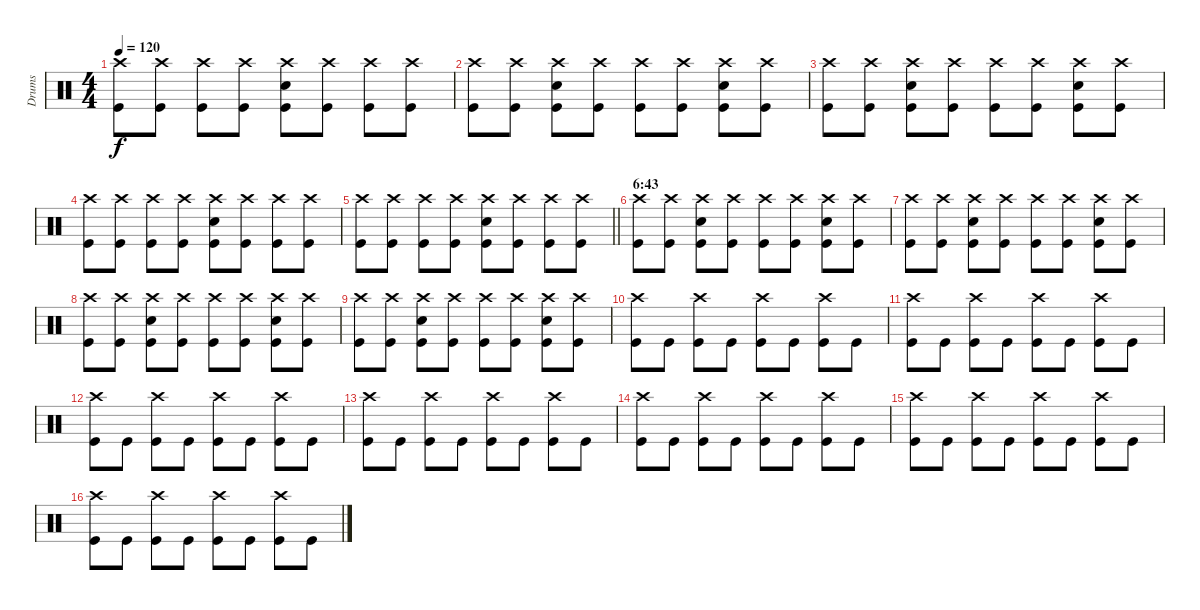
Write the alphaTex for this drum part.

\track ("Drums" "Drums") {instrument percussion}
\staff {score}
\articulation defaults
\ts (4 4)
\tempo 120
\clef neutral
\ks c
("Crash high (hit)" "Kick (hit)").8{dy f} ("Crash high (hit)" "Kick (hit)").8 ("Crash high (hit)" "Kick (hit)").8 ("Crash high (hit)" "Kick (hit)").8 ("Crash high (hit)" "Electric Snare (hit)" "Kick (hit)").8 ("Crash high (hit)" "Kick (hit)").8 ("Crash high (hit)" "Kick (hit)").8 ("Crash high (hit)" "Kick (hit)").8 |
("Crash high (hit)" "Kick (hit)").8 ("Crash high (hit)" "Kick (hit)").8 ("Crash high (hit)" "Electric Snare (hit)" "Kick (hit)").8 ("Crash high (hit)" "Kick (hit)").8 ("Crash high (hit)" "Kick (hit)").8 ("Crash high (hit)" "Kick (hit)").8 ("Crash high (hit)" "Electric Snare (hit)" "Kick (hit)").8 ("Crash high (hit)" "Kick (hit)").8 |
("Crash high (hit)" "Kick (hit)").8 ("Crash high (hit)" "Kick (hit)").8 ("Crash high (hit)" "Electric Snare (hit)" "Kick (hit)").8 ("Crash high (hit)" "Kick (hit)").8 ("Crash high (hit)" "Kick (hit)").8 ("Crash high (hit)" "Kick (hit)").8 ("Crash high (hit)" "Electric Snare (hit)" "Kick (hit)").8 ("Crash high (hit)" "Kick (hit)").8 |
("Crash high (hit)" "Kick (hit)").8 ("Crash high (hit)" "Kick (hit)").8 ("Crash high (hit)" "Kick (hit)").8 ("Crash high (hit)" "Kick (hit)").8 ("Crash high (hit)" "Electric Snare (hit)" "Kick (hit)").8 ("Crash high (hit)" "Kick (hit)").8 ("Crash high (hit)" "Kick (hit)").8 ("Crash high (hit)" "Kick (hit)").8 |
\barLineRight lightlight
("Crash high (hit)" "Kick (hit)").8 ("Crash high (hit)" "Kick (hit)").8 ("Crash high (hit)" "Kick (hit)").8 ("Crash high (hit)" "Kick (hit)").8 ("Crash high (hit)" "Electric Snare (hit)" "Kick (hit)").8 ("Crash high (hit)" "Kick (hit)").8 ("Crash high (hit)" "Kick (hit)").8 ("Crash high (hit)" "Kick (hit)").8 |
\section ("" "6:43")
("Crash high (hit)" "Kick (hit)").8 ("Crash high (hit)" "Kick (hit)").8 ("Crash high (hit)" "Electric Snare (hit)" "Kick (hit)").8 ("Crash high (hit)" "Kick (hit)").8 ("Crash high (hit)" "Kick (hit)").8 ("Crash high (hit)" "Kick (hit)").8 ("Crash high (hit)" "Electric Snare (hit)" "Kick (hit)").8 ("Crash high (hit)" "Kick (hit)").8 |
("Crash high (hit)" "Kick (hit)").8 ("Crash high (hit)" "Kick (hit)").8 ("Crash high (hit)" "Electric Snare (hit)" "Kick (hit)").8 ("Crash high (hit)" "Kick (hit)").8 ("Crash high (hit)" "Kick (hit)").8 ("Crash high (hit)" "Kick (hit)").8 ("Crash high (hit)" "Electric Snare (hit)" "Kick (hit)").8 ("Crash high (hit)" "Kick (hit)").8 |
("Crash high (hit)" "Kick (hit)").8 ("Crash high (hit)" "Kick (hit)").8 ("Crash high (hit)" "Electric Snare (hit)" "Kick (hit)").8 ("Crash high (hit)" "Kick (hit)").8 ("Crash high (hit)" "Kick (hit)").8 ("Crash high (hit)" "Kick (hit)").8 ("Crash high (hit)" "Electric Snare (hit)" "Kick (hit)").8 ("Crash high (hit)" "Kick (hit)").8 |
("Crash high (hit)" "Kick (hit)").8 ("Crash high (hit)" "Kick (hit)").8 ("Crash high (hit)" "Electric Snare (hit)" "Kick (hit)").8 ("Crash high (hit)" "Kick (hit)").8 ("Crash high (hit)" "Kick (hit)").8 ("Crash high (hit)" "Kick (hit)").8 ("Crash high (hit)" "Electric Snare (hit)" "Kick (hit)").8 ("Crash high (hit)" "Kick (hit)").8 |
("Crash high (hit)" "Kick (hit)").8 "Kick (hit)".8 ("Crash high (hit)" "Kick (hit)").8 "Kick (hit)".8 ("Crash high (hit)" "Kick (hit)").8 "Kick (hit)".8 ("Crash high (hit)" "Kick (hit)").8 "Kick (hit)".8 |
("Crash high (hit)" "Kick (hit)").8 "Kick (hit)".8 ("Crash high (hit)" "Kick (hit)").8 "Kick (hit)".8 ("Crash high (hit)" "Kick (hit)").8 "Kick (hit)".8 ("Crash high (hit)" "Kick (hit)").8 "Kick (hit)".8 |
("Crash high (hit)" "Kick (hit)").8 "Kick (hit)".8 ("Crash high (hit)" "Kick (hit)").8 "Kick (hit)".8 ("Crash high (hit)" "Kick (hit)").8 "Kick (hit)".8 ("Crash high (hit)" "Kick (hit)").8 "Kick (hit)".8 |
("Crash high (hit)" "Kick (hit)").8 "Kick (hit)".8 ("Crash high (hit)" "Kick (hit)").8 "Kick (hit)".8 ("Crash high (hit)" "Kick (hit)").8 "Kick (hit)".8 ("Crash high (hit)" "Kick (hit)").8 "Kick (hit)".8 |
("Crash high (hit)" "Kick (hit)").8 "Kick (hit)".8 ("Crash high (hit)" "Kick (hit)").8 "Kick (hit)".8 ("Crash high (hit)" "Kick (hit)").8 "Kick (hit)".8 ("Crash high (hit)" "Kick (hit)").8 "Kick (hit)".8 |
("Crash high (hit)" "Kick (hit)").8 "Kick (hit)".8 ("Crash high (hit)" "Kick (hit)").8 "Kick (hit)".8 ("Crash high (hit)" "Kick (hit)").8 "Kick (hit)".8 ("Crash high (hit)" "Kick (hit)").8 "Kick (hit)".8 |
("Crash high (hit)" "Kick (hit)").8 "Kick (hit)".8 ("Crash high (hit)" "Kick (hit)").8 "Kick (hit)".8 ("Crash high (hit)" "Kick (hit)").8 "Kick (hit)".8 ("Crash high (hit)" "Kick (hit)").8 "Kick (hit)".8
